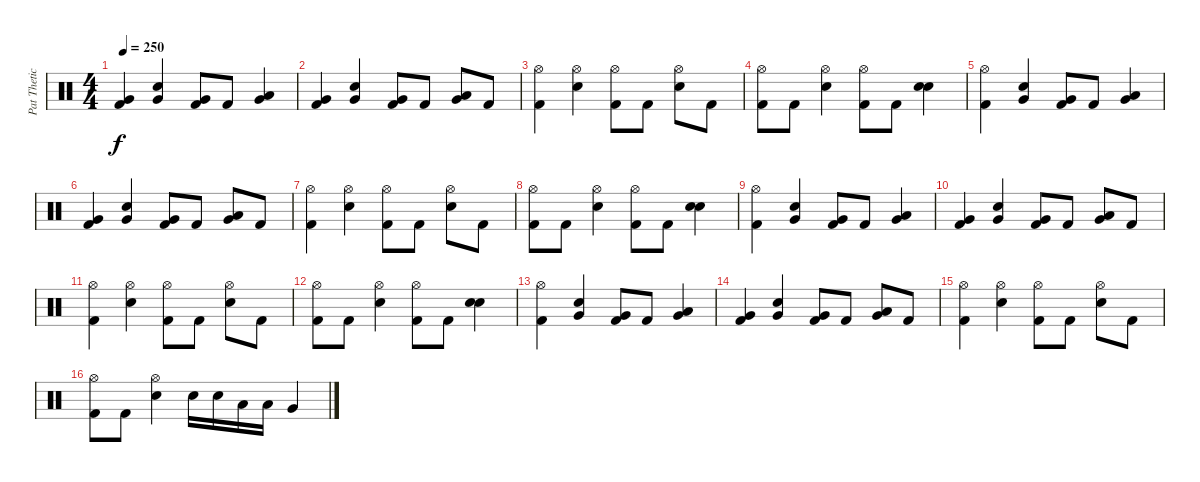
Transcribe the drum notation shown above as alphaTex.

\track ("Pat Thetic" "Pat Thetic") {instrument percussion}
\staff {score}
\articulation defaults
\ts (4 4)
\tempo 250
\clef neutral
\ks c
("Very Low Tom (hit)" "Kick (hit) 2").4{dy f} ("Very Low Tom (hit)" "Snare (hit) 2").4 ("Very Low Tom (hit)" "Kick (hit) 2").8 "Kick (hit) 2".8 ("Very Low Tom (hit)" "Low Tom (hit)").4 |
("Very Low Tom (hit)" "Kick (hit) 2").4 ("Very Low Tom (hit)" "Snare (hit) 2").4 ("Very Low Tom (hit)" "Kick (hit) 2").8 "Kick (hit) 2".8 ("Very Low Tom (hit)" "Low Tom (hit)").8 "Kick (hit) 2".8 |
("Hi-Hat (open)" "Kick (hit) 2").4 ("Hi-Hat (open)" "Snare (hit) 2").4 ("Hi-Hat (open)" "Kick (hit) 2").8 "Kick (hit) 2".8 ("Hi-Hat (open)" "Snare (hit) 2").8 "Kick (hit) 2".8 |
("Hi-Hat (open)" "Kick (hit) 2").8 "Kick (hit) 2".8 ("Hi-Hat (open)" "Snare (hit) 2").4 ("Hi-Hat (open)" "Kick (hit) 2").8 "Kick (hit) 2".8 ("Snare (hit) 2" "Snare (hit) 2").4 |
("Hi-Hat (open)" "Kick (hit) 2").4 ("Very Low Tom (hit)" "Snare (hit) 2").4 ("Very Low Tom (hit)" "Kick (hit) 2").8 "Kick (hit) 2".8 ("Very Low Tom (hit)" "Low Tom (hit)").4 |
("Very Low Tom (hit)" "Kick (hit) 2").4 ("Very Low Tom (hit)" "Snare (hit) 2").4 ("Very Low Tom (hit)" "Kick (hit) 2").8 "Kick (hit) 2".8 ("Very Low Tom (hit)" "Low Tom (hit)").8 "Kick (hit) 2".8 |
("Hi-Hat (open)" "Kick (hit) 2").4 ("Hi-Hat (open)" "Snare (hit) 2").4 ("Hi-Hat (open)" "Kick (hit) 2").8 "Kick (hit) 2".8 ("Hi-Hat (open)" "Snare (hit) 2").8 "Kick (hit) 2".8 |
("Hi-Hat (open)" "Kick (hit) 2").8 "Kick (hit) 2".8 ("Hi-Hat (open)" "Snare (hit) 2").4 ("Hi-Hat (open)" "Kick (hit) 2").8 "Kick (hit) 2".8 ("Snare (hit) 2" "Snare (hit) 2").4 |
("Hi-Hat (open)" "Kick (hit) 2").4 ("Very Low Tom (hit)" "Snare (hit) 2").4 ("Very Low Tom (hit)" "Kick (hit) 2").8 "Kick (hit) 2".8 ("Very Low Tom (hit)" "Low Tom (hit)").4 |
("Very Low Tom (hit)" "Kick (hit) 2").4 ("Very Low Tom (hit)" "Snare (hit) 2").4 ("Very Low Tom (hit)" "Kick (hit) 2").8 "Kick (hit) 2".8 ("Very Low Tom (hit)" "Low Tom (hit)").8 "Kick (hit) 2".8 |
("Hi-Hat (open)" "Kick (hit) 2").4 ("Hi-Hat (open)" "Snare (hit) 2").4 ("Hi-Hat (open)" "Kick (hit) 2").8 "Kick (hit) 2".8 ("Hi-Hat (open)" "Snare (hit) 2").8 "Kick (hit) 2".8 |
("Hi-Hat (open)" "Kick (hit) 2").8 "Kick (hit) 2".8 ("Hi-Hat (open)" "Snare (hit) 2").4 ("Hi-Hat (open)" "Kick (hit) 2").8 "Kick (hit) 2".8 ("Snare (hit) 2" "Snare (hit) 2").4 |
("Hi-Hat (open)" "Kick (hit) 2").4 ("Very Low Tom (hit)" "Snare (hit) 2").4 ("Very Low Tom (hit)" "Kick (hit) 2").8 "Kick (hit) 2".8 ("Very Low Tom (hit)" "Low Tom (hit)").4 |
("Very Low Tom (hit)" "Kick (hit) 2").4 ("Very Low Tom (hit)" "Snare (hit) 2").4 ("Very Low Tom (hit)" "Kick (hit) 2").8 "Kick (hit) 2".8 ("Very Low Tom (hit)" "Low Tom (hit)").8 "Kick (hit) 2".8 |
("Hi-Hat (open)" "Kick (hit) 2").4 ("Hi-Hat (open)" "Snare (hit) 2").4 ("Hi-Hat (open)" "Kick (hit) 2").8 "Kick (hit) 2".8 ("Hi-Hat (open)" "Snare (hit) 2").8 "Kick (hit) 2".8 |
("Hi-Hat (open)" "Kick (hit) 2").8 "Kick (hit) 2".8 ("Hi-Hat (open)" "Snare (hit) 2").4 "Snare (hit) 2".16 "Snare (hit) 2".16 "Low Tom (hit)".16 "Low Tom (hit)".16 "Very Low Tom (hit)".4
